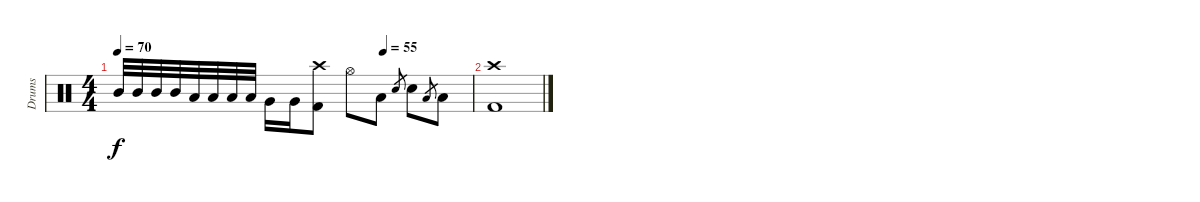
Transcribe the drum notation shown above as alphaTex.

\track ("Drums" "Drums") {instrument percussion}
\staff {score}
\articulation defaults
\ts (4 4)
\tempo 70
\tempo (55 0.75)
\clef neutral
\ks c "Mid Tom (hit)".32{dy f} "Mid Tom (hit)".32 "Mid Tom (hit)".32 "Mid Tom (hit)".32 "Low Tom (hit)".32 "Low Tom (hit)".32 "Low Tom (hit)".32 "Low Tom (hit)".32 "Very Low Tom (hit)".16 "Very Low Tom (hit)".16
("Crash high (hit)" "Kick (hit) 2").8 "Hi-Hat (open)".8 "Low Tom (hit)".8 "Snare (hit) 2".8{gr} "Snare (hit) 2".8 "Low Tom (hit)".8{gr} "Low Tom (hit)".8 |
("Crash high (hit)" "Kick (hit) 2").1
